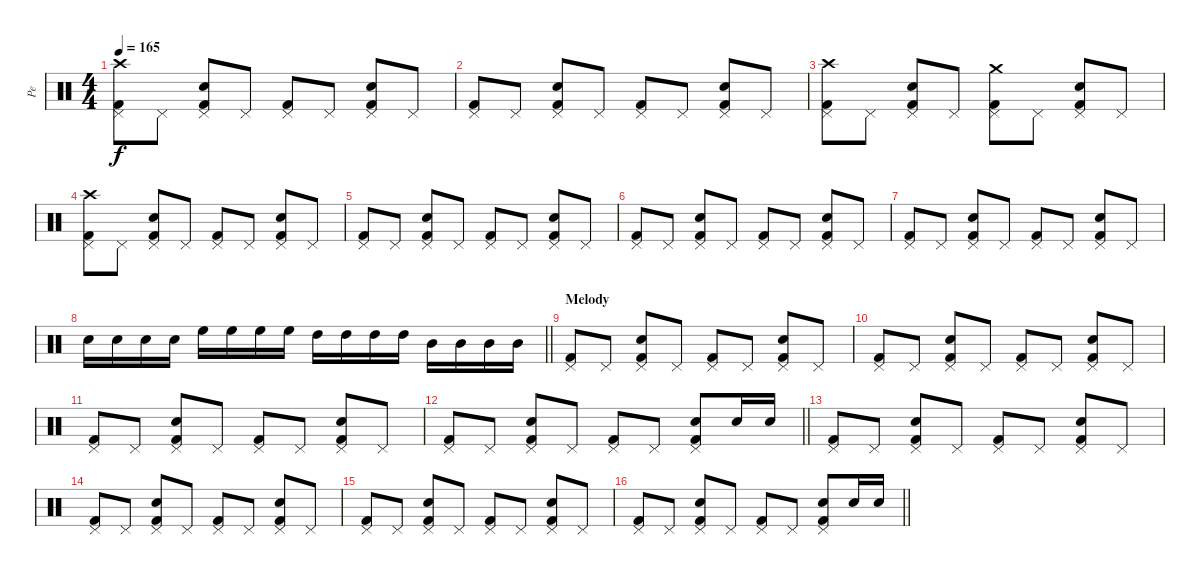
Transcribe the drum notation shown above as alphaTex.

\track ("Pe" "Pe") {instrument percussion}
\staff {score}
\articulation defaults
\ts (4 4)
\tempo 165
\clef neutral
\ks c
("Pedal Hi-Hat (hit)" "Kick (hit) 2" "Crash high (hit)").8{dy f} "Pedal Hi-Hat (hit)".8 ("Electric Snare (hit)" "Pedal Hi-Hat (hit)" "Kick (hit) 2").8 "Pedal Hi-Hat (hit)".8 ("Pedal Hi-Hat (hit)" "Kick (hit) 2").8 "Pedal Hi-Hat (hit)".8 ("Electric Snare (hit)" "Pedal Hi-Hat (hit)" "Kick (hit) 2").8 "Pedal Hi-Hat (hit)".8 |
("Pedal Hi-Hat (hit)" "Kick (hit) 2").8 "Pedal Hi-Hat (hit)".8 ("Electric Snare (hit)" "Pedal Hi-Hat (hit)" "Kick (hit) 2").8 "Pedal Hi-Hat (hit)".8 ("Pedal Hi-Hat (hit)" "Kick (hit) 2").8 "Pedal Hi-Hat (hit)".8 ("Electric Snare (hit)" "Pedal Hi-Hat (hit)" "Kick (hit) 2").8 "Pedal Hi-Hat (hit)".8 |
("Pedal Hi-Hat (hit)" "Kick (hit) 2" "Crash high (hit)").8 "Pedal Hi-Hat (hit)".8 ("Electric Snare (hit)" "Pedal Hi-Hat (hit)" "Kick (hit) 2").8 "Pedal Hi-Hat (hit)".8 ("Pedal Hi-Hat (hit)" "Kick (hit) 2" "Crash medium (hit)").8 "Pedal Hi-Hat (hit)".8 ("Electric Snare (hit)" "Pedal Hi-Hat (hit)" "Kick (hit) 2").8 "Pedal Hi-Hat (hit)".8 |
("Pedal Hi-Hat (hit)" "Kick (hit) 2" "Crash high (hit)").8 "Pedal Hi-Hat (hit)".8 ("Electric Snare (hit)" "Pedal Hi-Hat (hit)" "Kick (hit) 2").8 "Pedal Hi-Hat (hit)".8 ("Pedal Hi-Hat (hit)" "Kick (hit) 2").8 "Pedal Hi-Hat (hit)".8 ("Electric Snare (hit)" "Pedal Hi-Hat (hit)" "Kick (hit) 2").8 "Pedal Hi-Hat (hit)".8 |
("Pedal Hi-Hat (hit)" "Kick (hit) 2").8 "Pedal Hi-Hat (hit)".8 ("Electric Snare (hit)" "Pedal Hi-Hat (hit)" "Kick (hit) 2").8 "Pedal Hi-Hat (hit)".8 ("Pedal Hi-Hat (hit)" "Kick (hit) 2").8 "Pedal Hi-Hat (hit)".8 ("Electric Snare (hit)" "Pedal Hi-Hat (hit)" "Kick (hit) 2").8 "Pedal Hi-Hat (hit)".8 |
("Pedal Hi-Hat (hit)" "Kick (hit) 2").8 "Pedal Hi-Hat (hit)".8 ("Electric Snare (hit)" "Pedal Hi-Hat (hit)" "Kick (hit) 2").8 "Pedal Hi-Hat (hit)".8 ("Pedal Hi-Hat (hit)" "Kick (hit) 2").8 "Pedal Hi-Hat (hit)".8 ("Electric Snare (hit)" "Pedal Hi-Hat (hit)" "Kick (hit) 2").8 "Pedal Hi-Hat (hit)".8 |
("Pedal Hi-Hat (hit)" "Kick (hit) 2").8 "Pedal Hi-Hat (hit)".8 ("Electric Snare (hit)" "Pedal Hi-Hat (hit)" "Kick (hit) 2").8 "Pedal Hi-Hat (hit)".8 ("Pedal Hi-Hat (hit)" "Kick (hit) 2").8 "Pedal Hi-Hat (hit)".8 ("Electric Snare (hit)" "Pedal Hi-Hat (hit)" "Kick (hit) 2").8 "Pedal Hi-Hat (hit)".8 |
\barLineRight lightlight "Electric Snare (hit)".16 "Electric Snare (hit)".16 "Electric Snare (hit)".16 "Electric Snare (hit)".16 "High Floor Tom (hit)".16 "High Floor Tom (hit)".16 "High Floor Tom (hit)".16 "High Floor Tom (hit)".16 "High Tom (hit)".16 "High Tom (hit)".16 "High Tom (hit)".16 "High Tom (hit)".16 "Mid Tom (hit)".16 "Mid Tom (hit)".16 "Mid Tom (hit)".16 "Mid Tom (hit)".16
|
\section ("" "Melody")
("Pedal Hi-Hat (hit)" "Kick (hit) 2").8 "Pedal Hi-Hat (hit)".8 ("Electric Snare (hit)" "Pedal Hi-Hat (hit)" "Kick (hit) 2").8 "Pedal Hi-Hat (hit)".8 ("Pedal Hi-Hat (hit)" "Kick (hit) 2").8 "Pedal Hi-Hat (hit)".8 ("Electric Snare (hit)" "Pedal Hi-Hat (hit)" "Kick (hit) 2").8 "Pedal Hi-Hat (hit)".8 |
("Pedal Hi-Hat (hit)" "Kick (hit) 2").8 "Pedal Hi-Hat (hit)".8 ("Electric Snare (hit)" "Pedal Hi-Hat (hit)" "Kick (hit) 2").8 "Pedal Hi-Hat (hit)".8 ("Pedal Hi-Hat (hit)" "Kick (hit) 2").8 "Pedal Hi-Hat (hit)".8 ("Electric Snare (hit)" "Pedal Hi-Hat (hit)" "Kick (hit) 2").8 "Pedal Hi-Hat (hit)".8 |
("Pedal Hi-Hat (hit)" "Kick (hit) 2").8 "Pedal Hi-Hat (hit)".8 ("Electric Snare (hit)" "Pedal Hi-Hat (hit)" "Kick (hit) 2").8 "Pedal Hi-Hat (hit)".8 ("Pedal Hi-Hat (hit)" "Kick (hit) 2").8 "Pedal Hi-Hat (hit)".8 ("Electric Snare (hit)" "Pedal Hi-Hat (hit)" "Kick (hit) 2").8 "Pedal Hi-Hat (hit)".8 |
\barLineRight lightlight
("Pedal Hi-Hat (hit)" "Kick (hit) 2").8 "Pedal Hi-Hat (hit)".8 ("Electric Snare (hit)" "Pedal Hi-Hat (hit)" "Kick (hit) 2").8 "Pedal Hi-Hat (hit)".8 ("Pedal Hi-Hat (hit)" "Kick (hit) 2").8 "Pedal Hi-Hat (hit)".8 ("Electric Snare (hit)" "Pedal Hi-Hat (hit)" "Kick (hit) 2").8 "Electric Snare (hit)".16 "Electric Snare (hit)".16 |
("Pedal Hi-Hat (hit)" "Kick (hit) 2").8 "Pedal Hi-Hat (hit)".8 ("Electric Snare (hit)" "Pedal Hi-Hat (hit)" "Kick (hit) 2").8 "Pedal Hi-Hat (hit)".8 ("Pedal Hi-Hat (hit)" "Kick (hit) 2").8 "Pedal Hi-Hat (hit)".8 ("Electric Snare (hit)" "Pedal Hi-Hat (hit)" "Kick (hit) 2").8 "Pedal Hi-Hat (hit)".8 |
("Pedal Hi-Hat (hit)" "Kick (hit) 2").8 "Pedal Hi-Hat (hit)".8 ("Electric Snare (hit)" "Pedal Hi-Hat (hit)" "Kick (hit) 2").8 "Pedal Hi-Hat (hit)".8 ("Pedal Hi-Hat (hit)" "Kick (hit) 2").8 "Pedal Hi-Hat (hit)".8 ("Electric Snare (hit)" "Pedal Hi-Hat (hit)" "Kick (hit) 2").8 "Pedal Hi-Hat (hit)".8 |
("Pedal Hi-Hat (hit)" "Kick (hit) 2").8 "Pedal Hi-Hat (hit)".8 ("Electric Snare (hit)" "Pedal Hi-Hat (hit)" "Kick (hit) 2").8 "Pedal Hi-Hat (hit)".8 ("Pedal Hi-Hat (hit)" "Kick (hit) 2").8 "Pedal Hi-Hat (hit)".8 ("Electric Snare (hit)" "Pedal Hi-Hat (hit)" "Kick (hit) 2").8 "Pedal Hi-Hat (hit)".8 |
\barLineRight lightlight
("Pedal Hi-Hat (hit)" "Kick (hit) 2").8 "Pedal Hi-Hat (hit)".8 ("Electric Snare (hit)" "Pedal Hi-Hat (hit)" "Kick (hit) 2").8 "Pedal Hi-Hat (hit)".8 ("Pedal Hi-Hat (hit)" "Kick (hit) 2").8 "Pedal Hi-Hat (hit)".8 ("Electric Snare (hit)" "Pedal Hi-Hat (hit)" "Kick (hit) 2").8 "Electric Snare (hit)".16 "Electric Snare (hit)".16
